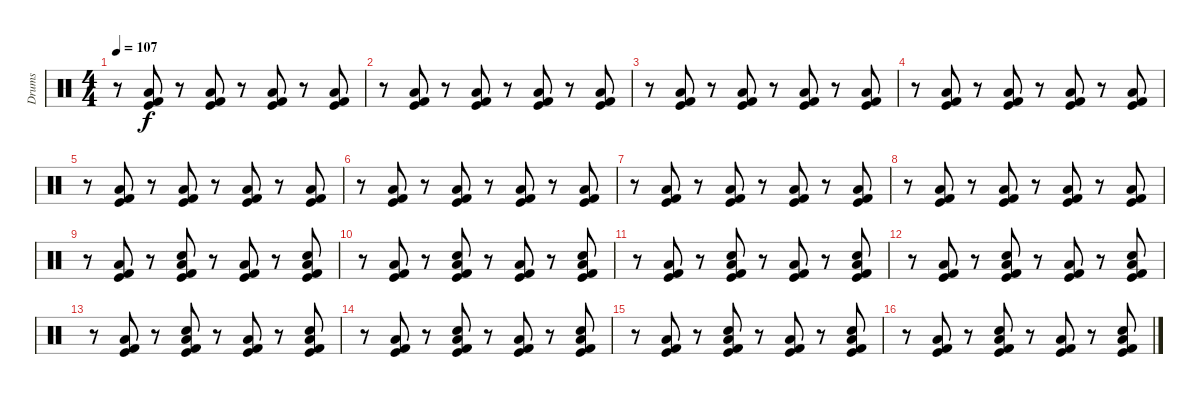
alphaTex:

\track ("Drums" "Drums") {instrument percussion}
\staff {score}
\articulation defaults
\ts (4 4)
\tempo 107
\clef neutral
\ks c
r.8{dy f} ("Kick (hit)" "Low Floor Tom (hit)" "Kick (hit) 2").8 r.8 ("Kick (hit)" "Low Floor Tom (hit)" "Kick (hit) 2").8 r.8 ("Kick (hit)" "Low Floor Tom (hit)" "Kick (hit) 2").8 r.8 ("Kick (hit)" "Low Floor Tom (hit)" "Kick (hit) 2").8 |
r.8 ("Kick (hit)" "Low Floor Tom (hit)" "Kick (hit) 2").8 r.8 ("Kick (hit)" "Low Floor Tom (hit)" "Kick (hit) 2").8 r.8 ("Kick (hit)" "Low Floor Tom (hit)" "Kick (hit) 2").8 r.8 ("Kick (hit)" "Low Floor Tom (hit)" "Kick (hit) 2").8 |
r.8 ("Kick (hit)" "Low Floor Tom (hit)" "Kick (hit) 2").8 r.8 ("Kick (hit)" "Low Floor Tom (hit)" "Kick (hit) 2").8 r.8 ("Kick (hit)" "Low Floor Tom (hit)" "Kick (hit) 2").8 r.8 ("Kick (hit)" "Low Floor Tom (hit)" "Kick (hit) 2").8 |
r.8 ("Kick (hit)" "Low Floor Tom (hit)" "Kick (hit) 2").8 r.8 ("Kick (hit)" "Low Floor Tom (hit)" "Kick (hit) 2").8 r.8 ("Kick (hit)" "Low Floor Tom (hit)" "Kick (hit) 2").8 r.8 ("Kick (hit)" "Low Floor Tom (hit)" "Kick (hit) 2").8 |
r.8 ("Kick (hit)" "Low Floor Tom (hit)" "Kick (hit) 2").8 r.8 ("Kick (hit)" "Low Floor Tom (hit)" "Kick (hit) 2").8 r.8 ("Kick (hit)" "Low Floor Tom (hit)" "Kick (hit) 2").8 r.8 ("Kick (hit)" "Low Floor Tom (hit)" "Kick (hit) 2").8 |
r.8 ("Kick (hit)" "Low Floor Tom (hit)" "Kick (hit) 2").8 r.8 ("Kick (hit)" "Low Floor Tom (hit)" "Kick (hit) 2").8 r.8 ("Kick (hit)" "Low Floor Tom (hit)" "Kick (hit) 2").8 r.8 ("Kick (hit)" "Low Floor Tom (hit)" "Kick (hit) 2").8 |
r.8 ("Kick (hit)" "Low Floor Tom (hit)" "Kick (hit) 2").8 r.8 ("Kick (hit)" "Low Floor Tom (hit)" "Kick (hit) 2").8 r.8 ("Kick (hit)" "Low Floor Tom (hit)" "Kick (hit) 2").8 r.8 ("Kick (hit)" "Low Floor Tom (hit)" "Kick (hit) 2").8 |
r.8 ("Kick (hit)" "Low Floor Tom (hit)" "Kick (hit) 2").8 r.8 ("Kick (hit)" "Low Floor Tom (hit)" "Kick (hit) 2").8 r.8 ("Kick (hit)" "Low Floor Tom (hit)" "Kick (hit) 2").8 r.8 ("Kick (hit)" "Low Floor Tom (hit)" "Kick (hit) 2").8 |
r.8 ("Kick (hit)" "Low Floor Tom (hit)" "Kick (hit) 2").8 r.8 ("Electric Snare (hit)" "Kick (hit)" "Low Floor Tom (hit)" "Kick (hit) 2").8 r.8 ("Kick (hit)" "Low Floor Tom (hit)" "Kick (hit) 2").8 r.8 ("Electric Snare (hit)" "Kick (hit)" "Low Floor Tom (hit)" "Kick (hit) 2").8 |
r.8 ("Kick (hit)" "Low Floor Tom (hit)" "Kick (hit) 2").8 r.8 ("Electric Snare (hit)" "Kick (hit)" "Low Floor Tom (hit)" "Kick (hit) 2").8 r.8 ("Kick (hit)" "Low Floor Tom (hit)" "Kick (hit) 2").8 r.8 ("Electric Snare (hit)" "Kick (hit)" "Low Floor Tom (hit)" "Kick (hit) 2").8 |
r.8 ("Kick (hit)" "Low Floor Tom (hit)" "Kick (hit) 2").8 r.8 ("Electric Snare (hit)" "Kick (hit)" "Low Floor Tom (hit)" "Kick (hit) 2").8 r.8 ("Kick (hit)" "Low Floor Tom (hit)" "Kick (hit) 2").8 r.8 ("Electric Snare (hit)" "Kick (hit)" "Low Floor Tom (hit)" "Kick (hit) 2").8 |
r.8 ("Kick (hit)" "Low Floor Tom (hit)" "Kick (hit) 2").8 r.8 ("Electric Snare (hit)" "Kick (hit)" "Low Floor Tom (hit)" "Kick (hit) 2").8 r.8 ("Kick (hit)" "Low Floor Tom (hit)" "Kick (hit) 2").8 r.8 ("Electric Snare (hit)" "Kick (hit)" "Low Floor Tom (hit)" "Kick (hit) 2").8 |
r.8 ("Kick (hit)" "Low Floor Tom (hit)" "Kick (hit) 2").8 r.8 ("Electric Snare (hit)" "Kick (hit)" "Low Floor Tom (hit)" "Kick (hit) 2").8 r.8 ("Kick (hit)" "Low Floor Tom (hit)" "Kick (hit) 2").8 r.8 ("Electric Snare (hit)" "Kick (hit)" "Low Floor Tom (hit)" "Kick (hit) 2").8 |
r.8 ("Kick (hit)" "Low Floor Tom (hit)" "Kick (hit) 2").8 r.8 ("Electric Snare (hit)" "Kick (hit)" "Low Floor Tom (hit)" "Kick (hit) 2").8 r.8 ("Kick (hit)" "Low Floor Tom (hit)" "Kick (hit) 2").8 r.8 ("Electric Snare (hit)" "Kick (hit)" "Low Floor Tom (hit)" "Kick (hit) 2").8 |
r.8 ("Kick (hit)" "Low Floor Tom (hit)" "Kick (hit) 2").8 r.8 ("Electric Snare (hit)" "Kick (hit)" "Low Floor Tom (hit)" "Kick (hit) 2").8 r.8 ("Kick (hit)" "Low Floor Tom (hit)" "Kick (hit) 2").8 r.8 ("Electric Snare (hit)" "Kick (hit)" "Low Floor Tom (hit)" "Kick (hit) 2").8 |
r.8 ("Kick (hit)" "Low Floor Tom (hit)" "Kick (hit) 2").8 r.8 ("Electric Snare (hit)" "Kick (hit)" "Low Floor Tom (hit)" "Kick (hit) 2").8 r.8 ("Kick (hit)" "Low Floor Tom (hit)" "Kick (hit) 2").8 r.8 ("Electric Snare (hit)" "Kick (hit)" "Low Floor Tom (hit)" "Kick (hit) 2").8
